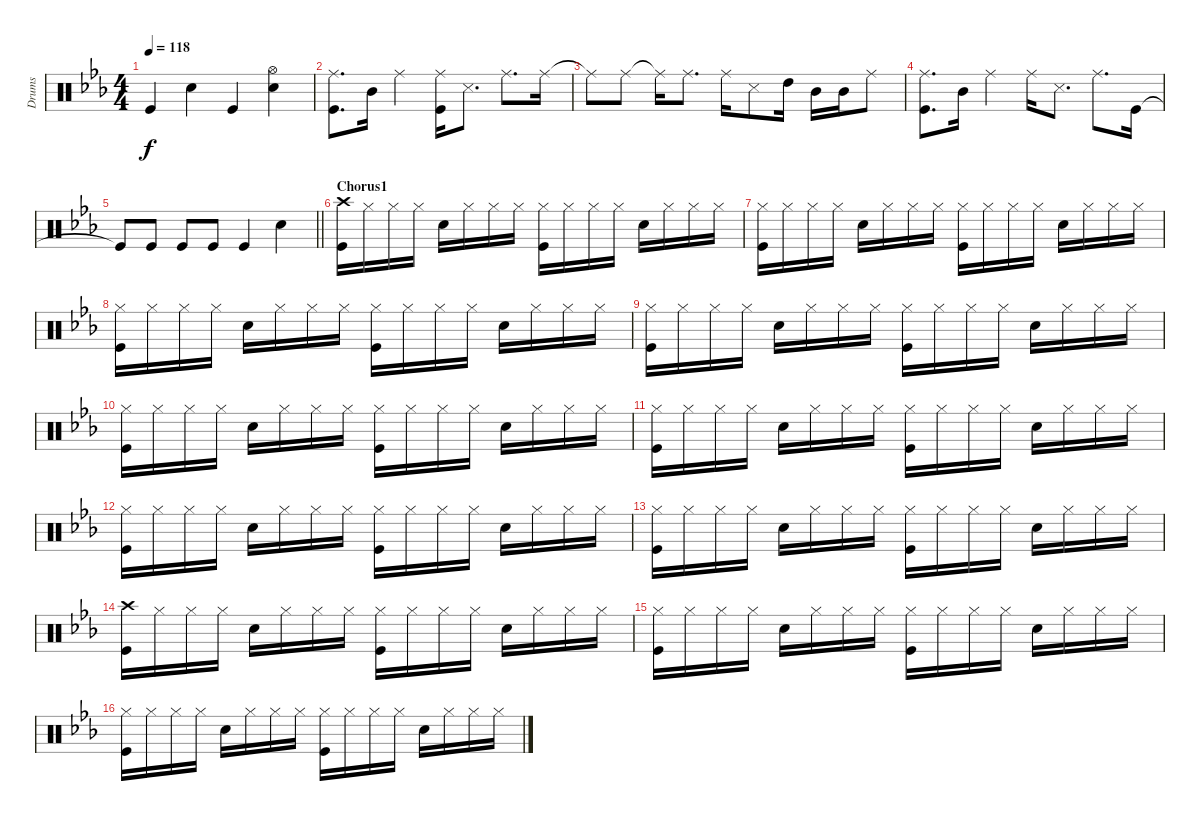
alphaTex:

\track ("Drums" "Drums") {instrument percussion}
\staff {score}
\articulation defaults
\ts (4 4)
\tempo 118
\clef neutral
\ks eb "Kick (hit)".4{dy f} "Snare (hit) 2".4 "Kick (hit)".4
("Snare (hit) 2" "Hi-Hat (open)").4 |
("Ride (middle)" "Kick (hit)").8{d} "Mid Tom (hit)".16 "Ride (middle)".4 ("Ride (middle)" "Kick (hit)").16 "Snare (side stick) 3".8{d} "Ride (middle)".8{d} "Ride (middle)".16 |
"Ride (middle)"{t}.8 "Ride (middle)".8 "Ride (middle)"{t}.16 "Ride (middle)".8{d} "Ride (middle)".16 "Snare (side stick) 3".8 "High Tom (hit)".16 "Mid Tom (hit)".16 "Mid Tom (hit)".16 "Ride (middle)".8 |
("Ride (middle)" "Kick (hit)").8{d} "Mid Tom (hit)".16 "Ride (middle)".4 "Ride (middle)".16 "Snare (side stick) 3".8{d} "Ride (middle)".8{d} "Kick (hit)".16 |
\barLineRight lightlight "Kick (hit)"{t}.8 "Kick (hit)".8 "Kick (hit)".8 "Kick (hit)".8 "Kick (hit)".4 "Snare (hit) 2".4
|
\section ("" "Chorus1")
("Crash high (hit)" "Kick (hit)").16 "Hi-Hat (closed)".16 "Hi-Hat (closed)".16 "Hi-Hat (closed)".16 "Snare (hit) 2".16 "Hi-Hat (closed)".16 "Hi-Hat (closed)".16 "Hi-Hat (closed)".16 ("Hi-Hat (closed)" "Kick (hit)").16 "Hi-Hat (closed)".16 "Hi-Hat (closed)".16 "Hi-Hat (closed)".16 "Snare (hit) 2".16 "Hi-Hat (closed)".16 "Hi-Hat (closed)".16 "Hi-Hat (closed)".16 |
("Kick (hit)" "Hi-Hat (closed)").16 "Hi-Hat (closed)".16 "Hi-Hat (closed)".16 "Hi-Hat (closed)".16 "Snare (hit) 2".16 "Hi-Hat (closed)".16 "Hi-Hat (closed)".16 "Hi-Hat (closed)".16 ("Hi-Hat (closed)" "Kick (hit)").16 "Hi-Hat (closed)".16 "Hi-Hat (closed)".16 "Hi-Hat (closed)".16 "Snare (hit) 2".16 "Hi-Hat (closed)".16 "Hi-Hat (closed)".16 "Hi-Hat (closed)".16 |
("Kick (hit)" "Hi-Hat (closed)").16 "Hi-Hat (closed)".16 "Hi-Hat (closed)".16 "Hi-Hat (closed)".16 "Snare (hit) 2".16 "Hi-Hat (closed)".16 "Hi-Hat (closed)".16 "Hi-Hat (closed)".16 ("Hi-Hat (closed)" "Kick (hit)").16 "Hi-Hat (closed)".16 "Hi-Hat (closed)".16 "Hi-Hat (closed)".16 "Snare (hit) 2".16 "Hi-Hat (closed)".16 "Hi-Hat (closed)".16 "Hi-Hat (closed)".16 |
("Kick (hit)" "Hi-Hat (closed)").16 "Hi-Hat (closed)".16 "Hi-Hat (closed)".16 "Hi-Hat (closed)".16 "Snare (hit) 2".16 "Hi-Hat (closed)".16 "Hi-Hat (closed)".16 "Hi-Hat (closed)".16 ("Hi-Hat (closed)" "Kick (hit)").16 "Hi-Hat (closed)".16 "Hi-Hat (closed)".16 "Hi-Hat (closed)".16 "Snare (hit) 2".16 "Hi-Hat (closed)".16 "Hi-Hat (closed)".16 "Hi-Hat (closed)".16 |
("Kick (hit)" "Hi-Hat (closed)").16 "Hi-Hat (closed)".16 "Hi-Hat (closed)".16 "Hi-Hat (closed)".16 "Snare (hit) 2".16 "Hi-Hat (closed)".16 "Hi-Hat (closed)".16 "Hi-Hat (closed)".16 ("Hi-Hat (closed)" "Kick (hit)").16 "Hi-Hat (closed)".16 "Hi-Hat (closed)".16 "Hi-Hat (closed)".16 "Snare (hit) 2".16 "Hi-Hat (closed)".16 "Hi-Hat (closed)".16 "Hi-Hat (closed)".16 |
("Kick (hit)" "Hi-Hat (closed)").16 "Hi-Hat (closed)".16 "Hi-Hat (closed)".16 "Hi-Hat (closed)".16 "Snare (hit) 2".16 "Hi-Hat (closed)".16 "Hi-Hat (closed)".16 "Hi-Hat (closed)".16 ("Hi-Hat (closed)" "Kick (hit)").16 "Hi-Hat (closed)".16 "Hi-Hat (closed)".16 "Hi-Hat (closed)".16 "Snare (hit) 2".16 "Hi-Hat (closed)".16 "Hi-Hat (closed)".16 "Hi-Hat (closed)".16 |
("Kick (hit)" "Hi-Hat (closed)").16 "Hi-Hat (closed)".16 "Hi-Hat (closed)".16 "Hi-Hat (closed)".16 "Snare (hit) 2".16 "Hi-Hat (closed)".16 "Hi-Hat (closed)".16 "Hi-Hat (closed)".16 ("Hi-Hat (closed)" "Kick (hit)").16 "Hi-Hat (closed)".16 "Hi-Hat (closed)".16 "Hi-Hat (closed)".16 "Snare (hit) 2".16 "Hi-Hat (closed)".16 "Hi-Hat (closed)".16 "Hi-Hat (closed)".16 |
("Kick (hit)" "Hi-Hat (closed)").16 "Hi-Hat (closed)".16 "Hi-Hat (closed)".16 "Hi-Hat (closed)".16 "Snare (hit) 2".16 "Hi-Hat (closed)".16 "Hi-Hat (closed)".16 "Hi-Hat (closed)".16 ("Hi-Hat (closed)" "Kick (hit)").16 "Hi-Hat (closed)".16 "Hi-Hat (closed)".16 "Hi-Hat (closed)".16 "Snare (hit) 2".16 "Hi-Hat (closed)".16 "Hi-Hat (closed)".16 "Hi-Hat (closed)".16 |
("Crash high (hit)" "Kick (hit)").16 "Hi-Hat (closed)".16 "Hi-Hat (closed)".16 "Hi-Hat (closed)".16 "Snare (hit) 2".16 "Hi-Hat (closed)".16 "Hi-Hat (closed)".16 "Hi-Hat (closed)".16 ("Hi-Hat (closed)" "Kick (hit)").16 "Hi-Hat (closed)".16 "Hi-Hat (closed)".16 "Hi-Hat (closed)".16 "Snare (hit) 2".16 "Hi-Hat (closed)".16 "Hi-Hat (closed)".16 "Hi-Hat (closed)".16 |
("Kick (hit)" "Hi-Hat (closed)").16 "Hi-Hat (closed)".16 "Hi-Hat (closed)".16 "Hi-Hat (closed)".16 "Snare (hit) 2".16 "Hi-Hat (closed)".16 "Hi-Hat (closed)".16 "Hi-Hat (closed)".16 ("Hi-Hat (closed)" "Kick (hit)").16 "Hi-Hat (closed)".16 "Hi-Hat (closed)".16 "Hi-Hat (closed)".16 "Snare (hit) 2".16 "Hi-Hat (closed)".16 "Hi-Hat (closed)".16 "Hi-Hat (closed)".16 |
("Kick (hit)" "Hi-Hat (closed)").16 "Hi-Hat (closed)".16 "Hi-Hat (closed)".16 "Hi-Hat (closed)".16 "Snare (hit) 2".16 "Hi-Hat (closed)".16 "Hi-Hat (closed)".16 "Hi-Hat (closed)".16 ("Hi-Hat (closed)" "Kick (hit)").16 "Hi-Hat (closed)".16 "Hi-Hat (closed)".16 "Hi-Hat (closed)".16 "Snare (hit) 2".16 "Hi-Hat (closed)".16 "Hi-Hat (closed)".16 "Hi-Hat (closed)".16
